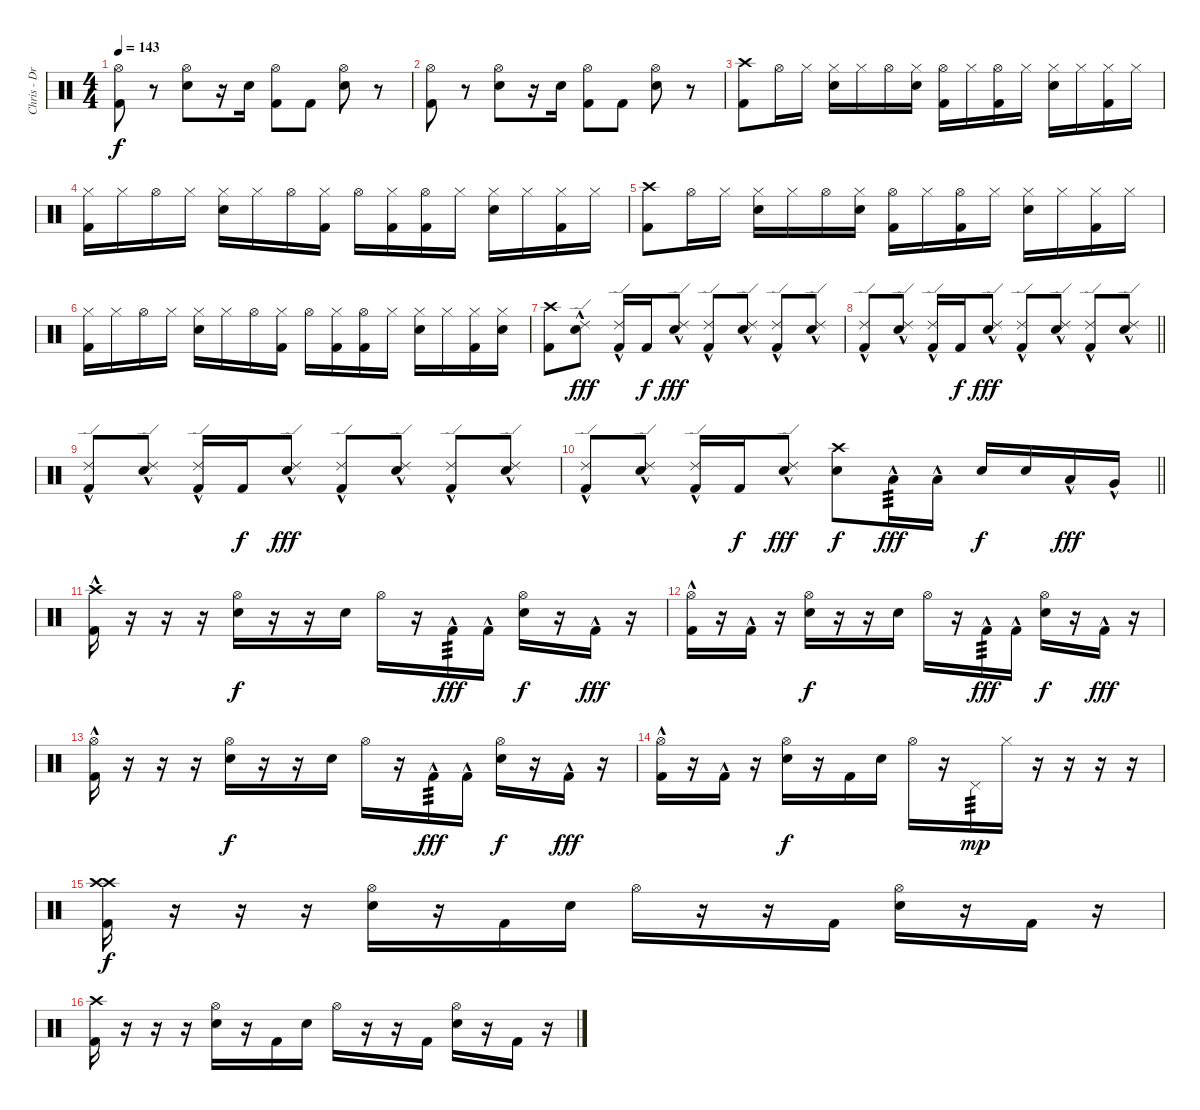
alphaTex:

\track ("Chris - Drums" "Chris - Dr") {instrument percussion}
\staff {score}
\articulation defaults
\ts (4 4)
\tempo 143
\clef neutral
\ks c
("Hi-Hat (open)" "Kick (hit) 2").8{dy f} r.8 ("Hi-Hat (open)" "Electric Snare (hit)").8 r.16 "Electric Snare (hit)".16 ("Hi-Hat (open)" "Kick (hit) 2").8 "Kick (hit) 2".8 ("Hi-Hat (open)" "Electric Snare (hit)").8 r.8 |
("Hi-Hat (open)" "Kick (hit) 2").8 r.8 ("Hi-Hat (open)" "Electric Snare (hit)").8 r.16 "Electric Snare (hit)".16 ("Hi-Hat (open)" "Kick (hit) 2").8 "Kick (hit) 2".8 ("Hi-Hat (open)" "Electric Snare (hit)").8 r.8 |
("Crash high (hit)" "Kick (hit) 2").8 "Hi-Hat (open)".16 "Hi-Hat (closed)".16 ("Hi-Hat (closed)" "Electric Snare (hit)").16 "Hi-Hat (closed)".16 "Hi-Hat (open)".16 ("Hi-Hat (closed)" "Electric Snare (hit)").16 ("Hi-Hat (open)" "Kick (hit) 2").16 "Hi-Hat (closed)".16 ("Hi-Hat (open)" "Kick (hit) 2").16 "Hi-Hat (closed)".16 ("Hi-Hat (closed)" "Electric Snare (hit)").16 "Hi-Hat (closed)".16 ("Hi-Hat (closed)" "Kick (hit) 2").16 "Hi-Hat (closed)".16 |
("Hi-Hat (closed)" "Kick (hit) 2").16 "Hi-Hat (closed)".16 "Hi-Hat (open)".16 "Hi-Hat (closed)".16 ("Hi-Hat (closed)" "Electric Snare (hit)").16 "Hi-Hat (closed)".16 "Hi-Hat (open)".16 ("Hi-Hat (closed)" "Kick (hit) 2").16 "Hi-Hat (open)".16 ("Hi-Hat (closed)" "Kick (hit) 2").16 ("Hi-Hat (open)" "Kick (hit) 2").16 "Hi-Hat (closed)".16 ("Hi-Hat (closed)" "Electric Snare (hit)").16 "Hi-Hat (closed)".16 ("Hi-Hat (closed)" "Kick (hit) 2").16 "Hi-Hat (closed)".16 |
("Crash high (hit)" "Kick (hit) 2").8 "Hi-Hat (open)".16 "Hi-Hat (closed)".16 ("Hi-Hat (closed)" "Electric Snare (hit)").16 "Hi-Hat (closed)".16 "Hi-Hat (open)".16 ("Hi-Hat (closed)" "Electric Snare (hit)").16 ("Hi-Hat (open)" "Kick (hit) 2").16 "Hi-Hat (closed)".16 ("Hi-Hat (open)" "Kick (hit) 2").16 "Hi-Hat (closed)".16 ("Hi-Hat (closed)" "Electric Snare (hit)").16 "Hi-Hat (closed)".16 ("Hi-Hat (closed)" "Kick (hit) 2").16 "Hi-Hat (closed)".16 |
("Hi-Hat (closed)" "Kick (hit) 2").16 "Hi-Hat (closed)".16 "Hi-Hat (open)".16 "Hi-Hat (closed)".16 ("Hi-Hat (closed)" "Electric Snare (hit)").16 "Hi-Hat (closed)".16 "Hi-Hat (open)".16 ("Hi-Hat (closed)" "Kick (hit) 2").16 "Hi-Hat (open)".16 ("Hi-Hat (closed)" "Kick (hit) 2").16 ("Hi-Hat (open)" "Kick (hit) 2").16 "Hi-Hat (closed)".16 ("Hi-Hat (closed)" "Electric Snare (hit)").16 "Hi-Hat (closed)".16 ("Hi-Hat (closed)" "Kick (hit) 2").16 ("Hi-Hat (closed)" "Electric Snare (hit)").16 |
("Crash high (hit)" "Kick (hit) 2").8 ("Ride (edge) 2"{hac} "Electric Snare (hit)").8{dy fff} ("Ride (edge) 2"{hac} "Kick (hit) 2").16 "Kick (hit) 2".16{dy f} ("Ride (edge) 2"{hac} "Electric Snare (hit)").8{dy fff} ("Ride (edge) 2"{hac} "Kick (hit) 2").8 ("Ride (edge) 2"{hac} "Electric Snare (hit)").8 ("Ride (edge) 2"{hac} "Kick (hit) 2").8 ("Ride (edge) 2"{hac} "Electric Snare (hit)").8 |
\barLineRight lightlight
("Ride (edge) 2"{hac} "Kick (hit) 2").8 ("Ride (edge) 2"{hac} "Electric Snare (hit)").8 ("Ride (edge) 2"{hac} "Kick (hit) 2").16 "Kick (hit) 2".16{dy f} ("Ride (edge) 2"{hac} "Electric Snare (hit)").8{dy fff} ("Ride (edge) 2"{hac} "Kick (hit) 2").8 ("Ride (edge) 2"{hac} "Electric Snare (hit)").8 ("Ride (edge) 2"{hac} "Kick (hit) 2").8 ("Ride (edge) 2"{hac} "Electric Snare (hit)").8 |
("Ride (edge) 2"{hac} "Kick (hit) 2").8 ("Ride (edge) 2"{hac} "Electric Snare (hit)").8 ("Ride (edge) 2"{hac} "Kick (hit) 2").16 "Kick (hit) 2".16{dy f} ("Ride (edge) 2"{hac} "Electric Snare (hit)").8{dy fff} ("Ride (edge) 2"{hac} "Kick (hit) 2").8 ("Ride (edge) 2"{hac} "Electric Snare (hit)").8 ("Ride (edge) 2"{hac} "Kick (hit) 2").8 ("Ride (edge) 2"{hac} "Electric Snare (hit)").8 |
\barLineRight lightlight
("Ride (edge) 2"{hac} "Kick (hit) 2").8 ("Ride (edge) 2"{hac} "Electric Snare (hit)").8 ("Ride (edge) 2"{hac} "Kick (hit) 2").16 "Kick (hit) 2".16{dy f} ("Ride (edge) 2"{hac} "Electric Snare (hit)").8{dy fff} ("Crash high (hit)" "Electric Snare (hit)").8{dy f} "Low Tom (hit)"{hac}.16{tp 3 dy fff} "Low Tom (hit)"{hac}.16 "Electric Snare (hit)".16{dy f} "Electric Snare (hit)".16 "Low Tom (hit)"{hac}.16{dy fff} "Very Low Tom (hit)"{hac}.16 |
("Crash high (hit)" "Kick (hit) 2"{hac}).16 r.16 r.16 r.16 ("Hi-Hat (open)" "Electric Snare (hit)").16{dy f} r.16 r.16 "Electric Snare (hit)".16 "Hi-Hat (open)".16 r.16 "Kick (hit) 2"{hac}.16{tp 3 dy fff} "Kick (hit) 2"{hac}.16 ("Hi-Hat (open)" "Electric Snare (hit)").16{dy f} r.16 "Kick (hit) 2"{hac}.16{dy fff} r.16 |
("Hi-Hat (open)" "Kick (hit) 2"{hac}).16 r.16 "Kick (hit) 2"{hac}.16 r.16 ("Hi-Hat (open)" "Electric Snare (hit)").16{dy f} r.16 r.16 "Electric Snare (hit)".16 "Hi-Hat (open)".16 r.16 "Kick (hit) 2"{hac}.16{tp 3 dy fff} "Kick (hit) 2"{hac}.16 ("Hi-Hat (open)" "Electric Snare (hit)").16{dy f} r.16 "Kick (hit) 2"{hac}.16{dy fff} r.16 |
("Hi-Hat (open)" "Kick (hit) 2"{hac}).16 r.16 r.16 r.16 ("Hi-Hat (open)" "Electric Snare (hit)").16{dy f} r.16 r.16 "Electric Snare (hit)".16 "Hi-Hat (open)".16 r.16 "Kick (hit) 2"{hac}.16{tp 3 dy fff} "Kick (hit) 2"{hac}.16 ("Hi-Hat (open)" "Electric Snare (hit)").16{dy f} r.16 "Kick (hit) 2"{hac}.16{dy fff} r.16 |
("Hi-Hat (open)" "Kick (hit) 2"{hac}).16 r.16 "Kick (hit) 2"{hac}.16 r.16 ("Hi-Hat (open)" "Electric Snare (hit)").16{dy f} r.16 "Kick (hit) 2".16 "Electric Snare (hit)".16 "Hi-Hat (open)".16 r.16 "Pedal Hi-Hat (hit)".16{tp 3 dy mp} "Hi-Hat (closed)".16 r.16 r.16 r.16 r.16 |
("Crash high (hit)" "Crash high (hit)" "Kick (hit) 2").16{dy f} r.16 r.16 r.16 ("Hi-Hat (open)" "Electric Snare (hit)").16 r.16 "Kick (hit) 2".16 "Electric Snare (hit)".16 "Hi-Hat (open)".16 r.16 r.16 "Kick (hit) 2".16 ("Hi-Hat (open)" "Electric Snare (hit)").16 r.16 "Kick (hit) 2".16 r.16 |
("Crash high (hit)" "Kick (hit) 2").16 r.16 r.16 r.16 ("Hi-Hat (open)" "Electric Snare (hit)").16 r.16 "Kick (hit) 2".16 "Electric Snare (hit)".16 "Hi-Hat (open)".16 r.16 r.16 "Kick (hit) 2".16 ("Hi-Hat (open)" "Electric Snare (hit)").16 r.16 "Kick (hit) 2".16 r.16
